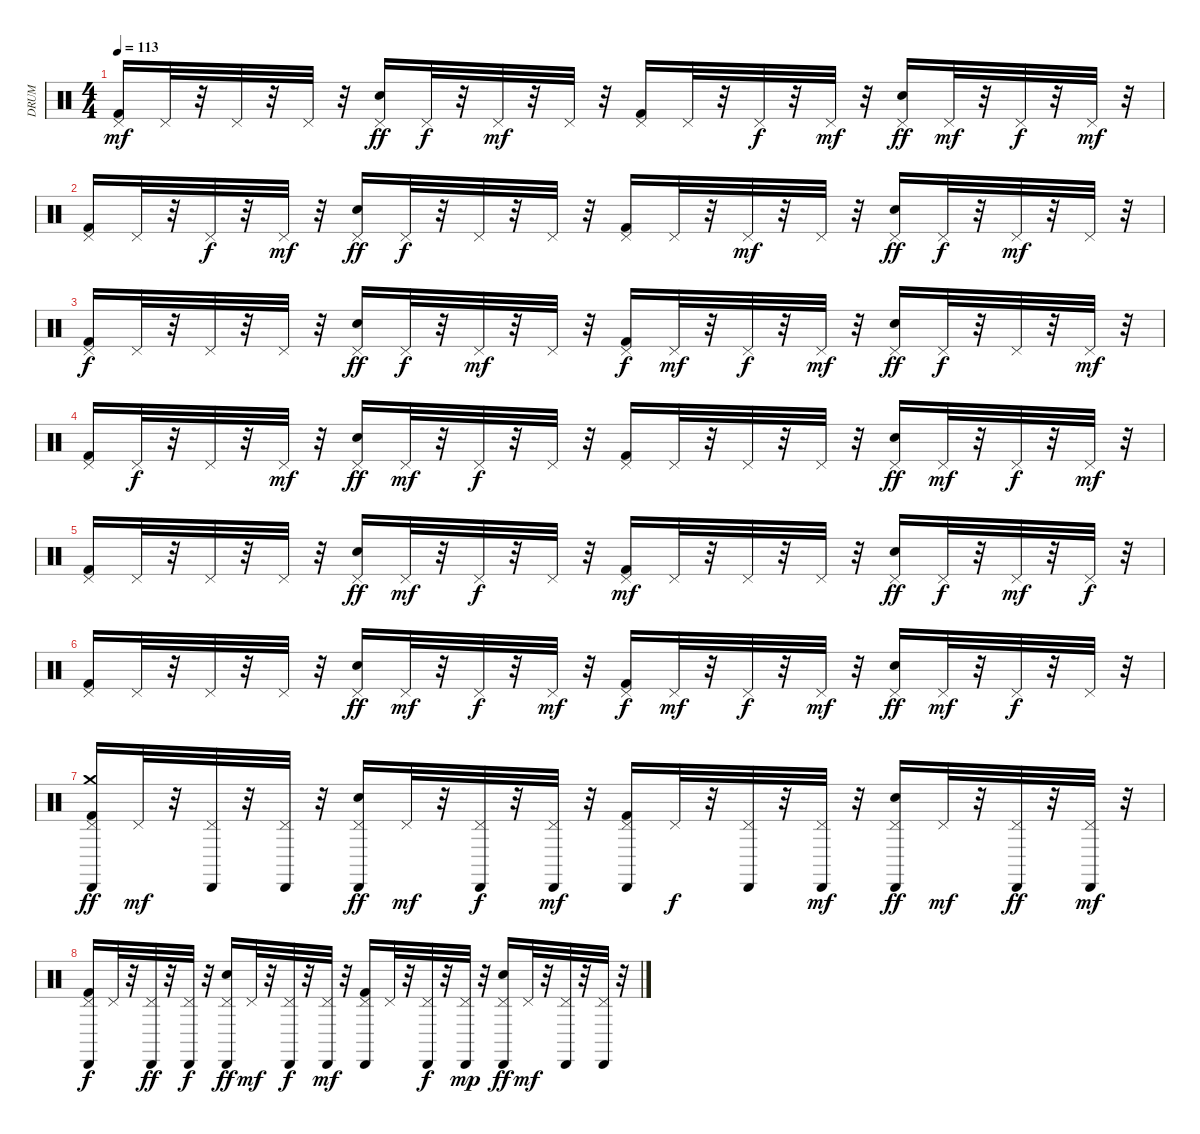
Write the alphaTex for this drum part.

\track ("DRUM" "DRUM") {instrument percussion}
\staff {score}
\articulation defaults
\ts (4 4)
\tempo 113
\clef neutral
\ks c
("Pedal Hi-Hat (hit)" "Kick (hit) 2").16{dy mf} "Pedal Hi-Hat (hit)".32 r.32 "Pedal Hi-Hat (hit)".32 r.32 "Pedal Hi-Hat (hit)".32 r.32 ("Pedal Hi-Hat (hit)" "Snare (hit) 2").16{dy ff} "Pedal Hi-Hat (hit)".32{dy f} r.32 "Pedal Hi-Hat (hit)".32{dy mf} r.32 "Pedal Hi-Hat (hit)".32 r.32 ("Pedal Hi-Hat (hit)" "Kick (hit) 2").16 "Pedal Hi-Hat (hit)".32 r.32 "Pedal Hi-Hat (hit)".32{dy f} r.32 "Pedal Hi-Hat (hit)".32{dy mf} r.32 ("Pedal Hi-Hat (hit)" "Snare (hit) 2").16{dy ff} "Pedal Hi-Hat (hit)".32{dy mf} r.32 "Pedal Hi-Hat (hit)".32{dy f} r.32 "Pedal Hi-Hat (hit)".32{dy mf} r.32 |
("Pedal Hi-Hat (hit)" "Kick (hit) 2").16 "Pedal Hi-Hat (hit)".32 r.32 "Pedal Hi-Hat (hit)".32{dy f} r.32 "Pedal Hi-Hat (hit)".32{dy mf} r.32 ("Pedal Hi-Hat (hit)" "Snare (hit) 2").16{dy ff} "Pedal Hi-Hat (hit)".32{dy f} r.32 "Pedal Hi-Hat (hit)".32 r.32 "Pedal Hi-Hat (hit)".32 r.32 ("Pedal Hi-Hat (hit)" "Kick (hit) 2").16 "Pedal Hi-Hat (hit)".32 r.32 "Pedal Hi-Hat (hit)".32{dy mf} r.32 "Pedal Hi-Hat (hit)".32 r.32 ("Pedal Hi-Hat (hit)" "Snare (hit) 2").16{dy ff} "Pedal Hi-Hat (hit)".32{dy f} r.32 "Pedal Hi-Hat (hit)".32{dy mf} r.32 "Pedal Hi-Hat (hit)".32 r.32 |
("Pedal Hi-Hat (hit)" "Kick (hit) 2").16{dy f} "Pedal Hi-Hat (hit)".32 r.32 "Pedal Hi-Hat (hit)".32 r.32 "Pedal Hi-Hat (hit)".32 r.32 ("Pedal Hi-Hat (hit)" "Snare (hit) 2").16{dy ff} "Pedal Hi-Hat (hit)".32{dy f} r.32 "Pedal Hi-Hat (hit)".32{dy mf} r.32 "Pedal Hi-Hat (hit)".32 r.32 ("Pedal Hi-Hat (hit)" "Kick (hit) 2").16{dy f} "Pedal Hi-Hat (hit)".32{dy mf} r.32 "Pedal Hi-Hat (hit)".32{dy f} r.32 "Pedal Hi-Hat (hit)".32{dy mf} r.32 ("Pedal Hi-Hat (hit)" "Snare (hit) 2").16{dy ff} "Pedal Hi-Hat (hit)".32{dy f} r.32 "Pedal Hi-Hat (hit)".32 r.32 "Pedal Hi-Hat (hit)".32{dy mf} r.32 |
("Pedal Hi-Hat (hit)" "Kick (hit) 2").16 "Pedal Hi-Hat (hit)".32{dy f} r.32 "Pedal Hi-Hat (hit)".32 r.32 "Pedal Hi-Hat (hit)".32{dy mf} r.32 ("Pedal Hi-Hat (hit)" "Snare (hit) 2").16{dy ff} "Pedal Hi-Hat (hit)".32{dy mf} r.32 "Pedal Hi-Hat (hit)".32{dy f} r.32 "Pedal Hi-Hat (hit)".32 r.32 ("Pedal Hi-Hat (hit)" "Kick (hit) 2").16 "Pedal Hi-Hat (hit)".32 r.32 "Pedal Hi-Hat (hit)".32 r.32 "Pedal Hi-Hat (hit)".32 r.32 ("Pedal Hi-Hat (hit)" "Snare (hit) 2").16{dy ff} "Pedal Hi-Hat (hit)".32{dy mf} r.32 "Pedal Hi-Hat (hit)".32{dy f} r.32 "Pedal Hi-Hat (hit)".32{dy mf} r.32 |
("Pedal Hi-Hat (hit)" "Kick (hit) 2").16 "Pedal Hi-Hat (hit)".32 r.32 "Pedal Hi-Hat (hit)".32 r.32 "Pedal Hi-Hat (hit)".32 r.32 ("Pedal Hi-Hat (hit)" "Snare (hit) 2").16{dy ff} "Pedal Hi-Hat (hit)".32{dy mf} r.32 "Pedal Hi-Hat (hit)".32{dy f} r.32 "Pedal Hi-Hat (hit)".32 r.32 ("Pedal Hi-Hat (hit)" "Kick (hit) 2").16{dy mf} "Pedal Hi-Hat (hit)".32 r.32 "Pedal Hi-Hat (hit)".32 r.32 "Pedal Hi-Hat (hit)".32 r.32 ("Pedal Hi-Hat (hit)" "Snare (hit) 2").16{dy ff} "Pedal Hi-Hat (hit)".32{dy f} r.32 "Pedal Hi-Hat (hit)".32{dy mf} r.32 "Pedal Hi-Hat (hit)".32{dy f} r.32 |
("Pedal Hi-Hat (hit)" "Kick (hit) 2").16 "Pedal Hi-Hat (hit)".32 r.32 "Pedal Hi-Hat (hit)".32 r.32 "Pedal Hi-Hat (hit)".32 r.32 ("Pedal Hi-Hat (hit)" "Snare (hit) 2").16{dy ff} "Pedal Hi-Hat (hit)".32{dy mf} r.32 "Pedal Hi-Hat (hit)".32{dy f} r.32 "Pedal Hi-Hat (hit)".32{dy mf} r.32 ("Pedal Hi-Hat (hit)" "Kick (hit) 2").16{dy f} "Pedal Hi-Hat (hit)".32{dy mf} r.32 "Pedal Hi-Hat (hit)".32{dy f} r.32 "Pedal Hi-Hat (hit)".32{dy mf} r.32 ("Pedal Hi-Hat (hit)" "Snare (hit) 2").16{dy ff} "Pedal Hi-Hat (hit)".32{dy mf} r.32 "Pedal Hi-Hat (hit)".32{dy f} r.32 "Pedal Hi-Hat (hit)".32 r.32 |
("Cabasa (hit)" "Crash medium (hit)" "Pedal Hi-Hat (hit)" "Kick (hit) 2").16{dy ff} "Pedal Hi-Hat (hit)".32{dy mf} r.32 ("Cabasa (hit)" "Pedal Hi-Hat (hit)").32 r.32 ("Cabasa (hit)" "Pedal Hi-Hat (hit)").32 r.32 ("Cabasa (hit)" "Pedal Hi-Hat (hit)" "Snare (hit) 2").16{dy ff} "Pedal Hi-Hat (hit)".32{dy mf} r.32 ("Cabasa (hit)" "Pedal Hi-Hat (hit)").32{dy f} r.32 ("Cabasa (hit)" "Pedal Hi-Hat (hit)").32{dy mf} r.32 ("Cabasa (hit)" "Pedal Hi-Hat (hit)" "Kick (hit) 2").16 "Pedal Hi-Hat (hit)".32{dy f} r.32 ("Cabasa (hit)" "Pedal Hi-Hat (hit)").32 r.32 ("Cabasa (hit)" "Pedal Hi-Hat (hit)").32{dy mf} r.32 ("Cabasa (hit)" "Pedal Hi-Hat (hit)" "Snare (hit) 2").16{dy ff} "Pedal Hi-Hat (hit)".32{dy mf} r.32 ("Cabasa (hit)" "Pedal Hi-Hat (hit)").32{dy ff} r.32 ("Cabasa (hit)" "Pedal Hi-Hat (hit)").32{dy mf} r.32 |
("Cabasa (hit)" "Pedal Hi-Hat (hit)" "Kick (hit) 2").16{dy f} "Pedal Hi-Hat (hit)".32 r.32 ("Cabasa (hit)" "Pedal Hi-Hat (hit)").32{dy ff} r.32 ("Cabasa (hit)" "Pedal Hi-Hat (hit)").32{dy f} r.32 ("Cabasa (hit)" "Pedal Hi-Hat (hit)" "Snare (hit) 2").16{dy ff} "Pedal Hi-Hat (hit)".32{dy mf} r.32 ("Cabasa (hit)" "Pedal Hi-Hat (hit)").32{dy f} r.32 ("Cabasa (hit)" "Pedal Hi-Hat (hit)").32{dy mf} r.32 ("Cabasa (hit)" "Pedal Hi-Hat (hit)" "Kick (hit) 2").16 "Pedal Hi-Hat (hit)".32 r.32 ("Cabasa (hit)" "Pedal Hi-Hat (hit)").32{dy f} r.32 ("Cabasa (hit)" "Pedal Hi-Hat (hit)").32{dy mp} r.32 ("Cabasa (hit)" "Pedal Hi-Hat (hit)" "Snare (hit) 2").16{dy ff} "Pedal Hi-Hat (hit)".32{dy mf} r.32 ("Cabasa (hit)" "Pedal Hi-Hat (hit)").32 r.32 ("Cabasa (hit)" "Pedal Hi-Hat (hit)").32 r.32
